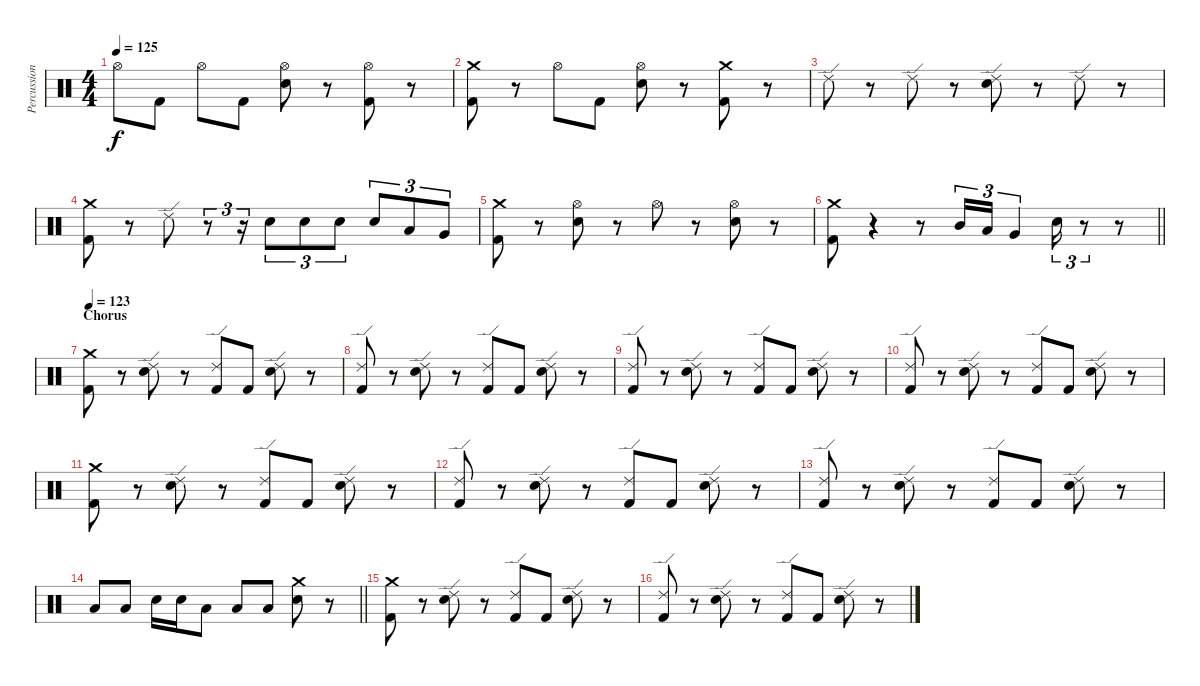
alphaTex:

\track ("Percussion" "Percussion") {instrument percussion}
\staff {score}
\articulation defaults
\ts (4 4)
\tempo 125
\clef neutral
\ks c "Hi-Hat (open)".8{dy f} "Kick (hit) 2".8 "Hi-Hat (open)".8 "Kick (hit) 2".8
("Hi-Hat (open)" "Electric Snare (hit)").8 r.8 ("Hi-Hat (open)" "Kick (hit) 2").8 r.8 |
("Crash medium (hit)" "Kick (hit) 2").8 r.8 "Hi-Hat (open)".8 "Kick (hit) 2".8 ("Hi-Hat (open)" "Electric Snare (hit)").8 r.8 ("Crash medium (hit)" "Kick (hit) 2").8 r.8 |
"Ride (edge) 2".8 r.8 "Ride (edge) 2".8 r.8 ("Ride (edge) 2" "Electric Snare (hit)").8 r.8 "Ride (edge) 2".8 r.8 |
("Crash medium (hit)" "Kick (hit) 2").8 r.8 "Ride (edge) 2".8 r.8{tu (3 2)} r.16{tu (3 2)} "Electric Snare (hit)".8{tu (3 2)} "Electric Snare (hit)".8{tu (3 2)} "Electric Snare (hit)".8{tu (3 2)} "Electric Snare (hit)".8{tu (3 2)} "Low Tom (hit)".8{tu (3 2)} "Very Low Tom (hit)".8{tu (3 2)} |
("Crash medium (hit)" "Kick (hit) 2").8 r.8 ("Hi-Hat (open)" "Electric Snare (hit)").8 r.8 "Hi-Hat (open)".8 r.8 ("Hi-Hat (open)" "Electric Snare (hit)").8 r.8 |
\barLineRight lightlight
("Kick (hit) 2" "Crash medium (hit)").8 r.4 r.8 "Mid Tom (hit)".16{tu (3 2)} "Low Tom (hit)".16{tu (3 2)} "Very Low Tom (hit)".4{tu (3 2)} "Electric Snare (hit)".16{tu (3 2)} r.8{tu (3 2)} r.8 |
\section ("" "Chorus")
\tempo 123
("Crash medium (hit)" "Kick (hit) 2").8 r.8 ("Ride (edge) 2" "Electric Snare (hit)").8 r.8 ("Ride (edge) 2" "Kick (hit) 2").8 "Kick (hit) 2".8 ("Ride (edge) 2" "Electric Snare (hit)").8 r.8 |
("Ride (edge) 2" "Kick (hit) 2").8 r.8 ("Ride (edge) 2" "Electric Snare (hit)").8 r.8 ("Ride (edge) 2" "Kick (hit) 2").8 "Kick (hit) 2".8 ("Ride (edge) 2" "Electric Snare (hit)").8 r.8 |
("Ride (edge) 2" "Kick (hit) 2").8 r.8 ("Ride (edge) 2" "Electric Snare (hit)").8 r.8 ("Ride (edge) 2" "Kick (hit) 2").8 "Kick (hit) 2".8 ("Ride (edge) 2" "Electric Snare (hit)").8 r.8 |
("Ride (edge) 2" "Kick (hit) 2").8 r.8 ("Ride (edge) 2" "Electric Snare (hit)").8 r.8 ("Ride (edge) 2" "Kick (hit) 2").8 "Kick (hit) 2".8 ("Ride (edge) 2" "Electric Snare (hit)").8 r.8 |
("Crash medium (hit)" "Kick (hit) 2").8 r.8 ("Ride (edge) 2" "Electric Snare (hit)").8 r.8 ("Ride (edge) 2" "Kick (hit) 2").8 "Kick (hit) 2".8 ("Ride (edge) 2" "Electric Snare (hit)").8 r.8 |
("Ride (edge) 2" "Kick (hit) 2").8 r.8 ("Ride (edge) 2" "Electric Snare (hit)").8 r.8 ("Ride (edge) 2" "Kick (hit) 2").8 "Kick (hit) 2".8 ("Ride (edge) 2" "Electric Snare (hit)").8 r.8 |
("Ride (edge) 2" "Kick (hit) 2").8 r.8 ("Ride (edge) 2" "Electric Snare (hit)").8 r.8 ("Ride (edge) 2" "Kick (hit) 2").8 "Kick (hit) 2".8 ("Ride (edge) 2" "Electric Snare (hit)").8 r.8 |
\barLineRight lightlight "Low Tom (hit)".8 "Low Tom (hit)".8 "Electric Snare (hit)".16 "Electric Snare (hit)".16 "Low Tom (hit)".8 "Low Tom (hit)".8 "Low Tom (hit)".8
("Crash medium (hit)" "Electric Snare (hit)").8 r.8 |
("Crash medium (hit)" "Kick (hit) 2").8 r.8 ("Ride (edge) 2" "Electric Snare (hit)").8 r.8 ("Ride (edge) 2" "Kick (hit) 2").8 "Kick (hit) 2".8 ("Ride (edge) 2" "Electric Snare (hit)").8 r.8 |
("Ride (edge) 2" "Kick (hit) 2").8 r.8 ("Ride (edge) 2" "Electric Snare (hit)").8 r.8 ("Ride (edge) 2" "Kick (hit) 2").8 "Kick (hit) 2".8 ("Ride (edge) 2" "Electric Snare (hit)").8 r.8
